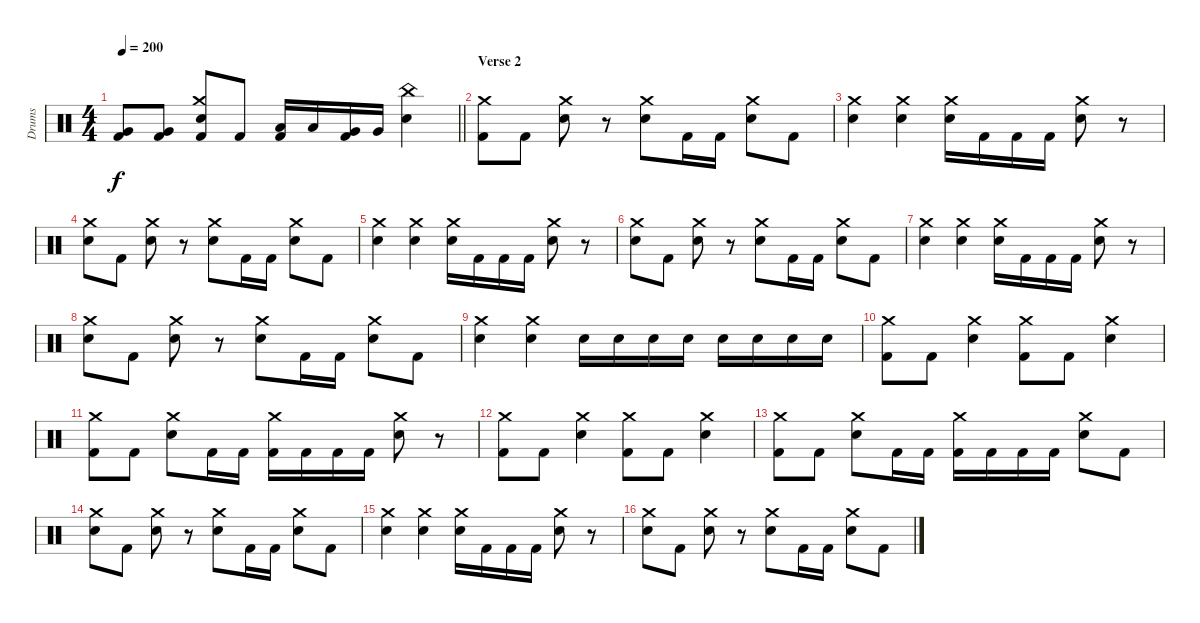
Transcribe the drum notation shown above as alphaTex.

\track ("Drums" "Drums") {instrument percussion}
\staff {score}
\articulation defaults
\ts (4 4)
\tempo 200
\clef neutral
\barLineRight lightlight
\ks c
("Very Low Tom (hit)" "Kick (hit) 2").8{dy f} ("Very Low Tom (hit)" "Kick (hit) 2").8 ("Crash medium (hit)" "Electric Snare (hit)" "Kick (hit) 2").8 "Kick (hit) 2".8 ("Low Tom (hit)" "Kick (hit) 2").16 "Low Tom (hit)".16 ("Very Low Tom (hit)" "Kick (hit) 2").16 "Very Low Tom (hit)".16 ("China (hit)" "Electric Snare (hit)").4 |
\section ("" "Verse 2")
("Crash medium (hit)" "Kick (hit) 2").8 "Kick (hit) 2".8 ("Crash medium (hit)" "Electric Snare (hit)").8 r.8 ("Crash medium (hit)" "Electric Snare (hit)").8 "Kick (hit) 2".16 "Kick (hit) 2".16 ("Crash medium (hit)" "Electric Snare (hit)").8 "Kick (hit) 2".8 |
("Crash medium (hit)" "Electric Snare (hit)").4 ("Crash medium (hit)" "Electric Snare (hit)").4 ("Crash medium (hit)" "Electric Snare (hit)").16 "Kick (hit) 2".16 "Kick (hit) 2".16 "Kick (hit) 2".16 ("Crash medium (hit)" "Electric Snare (hit)").8 r.8 |
("Crash medium (hit)" "Electric Snare (hit)").8 "Kick (hit) 2".8 ("Crash medium (hit)" "Electric Snare (hit)").8 r.8 ("Crash medium (hit)" "Electric Snare (hit)").8 "Kick (hit) 2".16 "Kick (hit) 2".16 ("Crash medium (hit)" "Electric Snare (hit)").8 "Kick (hit) 2".8 |
("Crash medium (hit)" "Electric Snare (hit)").4 ("Crash medium (hit)" "Electric Snare (hit)").4 ("Crash medium (hit)" "Electric Snare (hit)").16 "Kick (hit) 2".16 "Kick (hit) 2".16 "Kick (hit) 2".16 ("Crash medium (hit)" "Electric Snare (hit)").8 r.8 |
("Crash medium (hit)" "Electric Snare (hit)").8 "Kick (hit) 2".8 ("Crash medium (hit)" "Electric Snare (hit)").8 r.8 ("Crash medium (hit)" "Electric Snare (hit)").8 "Kick (hit) 2".16 "Kick (hit) 2".16 ("Crash medium (hit)" "Electric Snare (hit)").8 "Kick (hit) 2".8 |
("Crash medium (hit)" "Electric Snare (hit)").4 ("Crash medium (hit)" "Electric Snare (hit)").4 ("Crash medium (hit)" "Electric Snare (hit)").16 "Kick (hit) 2".16 "Kick (hit) 2".16 "Kick (hit) 2".16 ("Crash medium (hit)" "Electric Snare (hit)").8 r.8 |
("Crash medium (hit)" "Electric Snare (hit)").8 "Kick (hit) 2".8 ("Crash medium (hit)" "Electric Snare (hit)").8 r.8 ("Crash medium (hit)" "Electric Snare (hit)").8 "Kick (hit) 2".16 "Kick (hit) 2".16 ("Crash medium (hit)" "Electric Snare (hit)").8 "Kick (hit) 2".8 |
("Crash medium (hit)" "Electric Snare (hit)").4 ("Crash medium (hit)" "Electric Snare (hit)").4 "Electric Snare (hit)".16 "Electric Snare (hit)".16 "Electric Snare (hit)".16 "Electric Snare (hit)".16 "Electric Snare (hit)".16 "Electric Snare (hit)".16 "Electric Snare (hit)".16 "Electric Snare (hit)".16 |
("Crash medium (hit)" "Kick (hit) 2").8 "Kick (hit) 2".8 ("Crash medium (hit)" "Electric Snare (hit)").4 ("Crash medium (hit)" "Kick (hit) 2").8 "Kick (hit) 2".8 ("Crash medium (hit)" "Electric Snare (hit)").4 |
("Crash medium (hit)" "Kick (hit) 2").8 "Kick (hit) 2".8 ("Crash medium (hit)" "Electric Snare (hit)").8 "Kick (hit) 2".16 "Kick (hit) 2".16 ("Crash medium (hit)" "Kick (hit) 2").16 "Kick (hit) 2".16 "Kick (hit) 2".16 "Kick (hit) 2".16 ("Crash medium (hit)" "Electric Snare (hit)").8 r.8 |
("Crash medium (hit)" "Kick (hit) 2").8 "Kick (hit) 2".8 ("Crash medium (hit)" "Electric Snare (hit)").4 ("Crash medium (hit)" "Kick (hit) 2").8 "Kick (hit) 2".8 ("Crash medium (hit)" "Electric Snare (hit)").4 |
("Crash medium (hit)" "Kick (hit) 2").8 "Kick (hit) 2".8 ("Crash medium (hit)" "Electric Snare (hit)").8 "Kick (hit) 2".16 "Kick (hit) 2".16 ("Crash medium (hit)" "Kick (hit) 2").16 "Kick (hit) 2".16 "Kick (hit) 2".16 "Kick (hit) 2".16 ("Crash medium (hit)" "Electric Snare (hit)").8 "Kick (hit) 2".8 |
("Crash medium (hit)" "Electric Snare (hit)").8 "Kick (hit) 2".8 ("Crash medium (hit)" "Electric Snare (hit)").8 r.8 ("Crash medium (hit)" "Electric Snare (hit)").8 "Kick (hit) 2".16 "Kick (hit) 2".16 ("Crash medium (hit)" "Electric Snare (hit)").8 "Kick (hit) 2".8 |
("Crash medium (hit)" "Electric Snare (hit)").4 ("Crash medium (hit)" "Electric Snare (hit)").4 ("Crash medium (hit)" "Electric Snare (hit)").16 "Kick (hit) 2".16 "Kick (hit) 2".16 "Kick (hit) 2".16 ("Crash medium (hit)" "Electric Snare (hit)").8 r.8 |
("Crash medium (hit)" "Electric Snare (hit)").8 "Kick (hit) 2".8 ("Crash medium (hit)" "Electric Snare (hit)").8 r.8 ("Crash medium (hit)" "Electric Snare (hit)").8 "Kick (hit) 2".16 "Kick (hit) 2".16 ("Crash medium (hit)" "Electric Snare (hit)").8 "Kick (hit) 2".8
